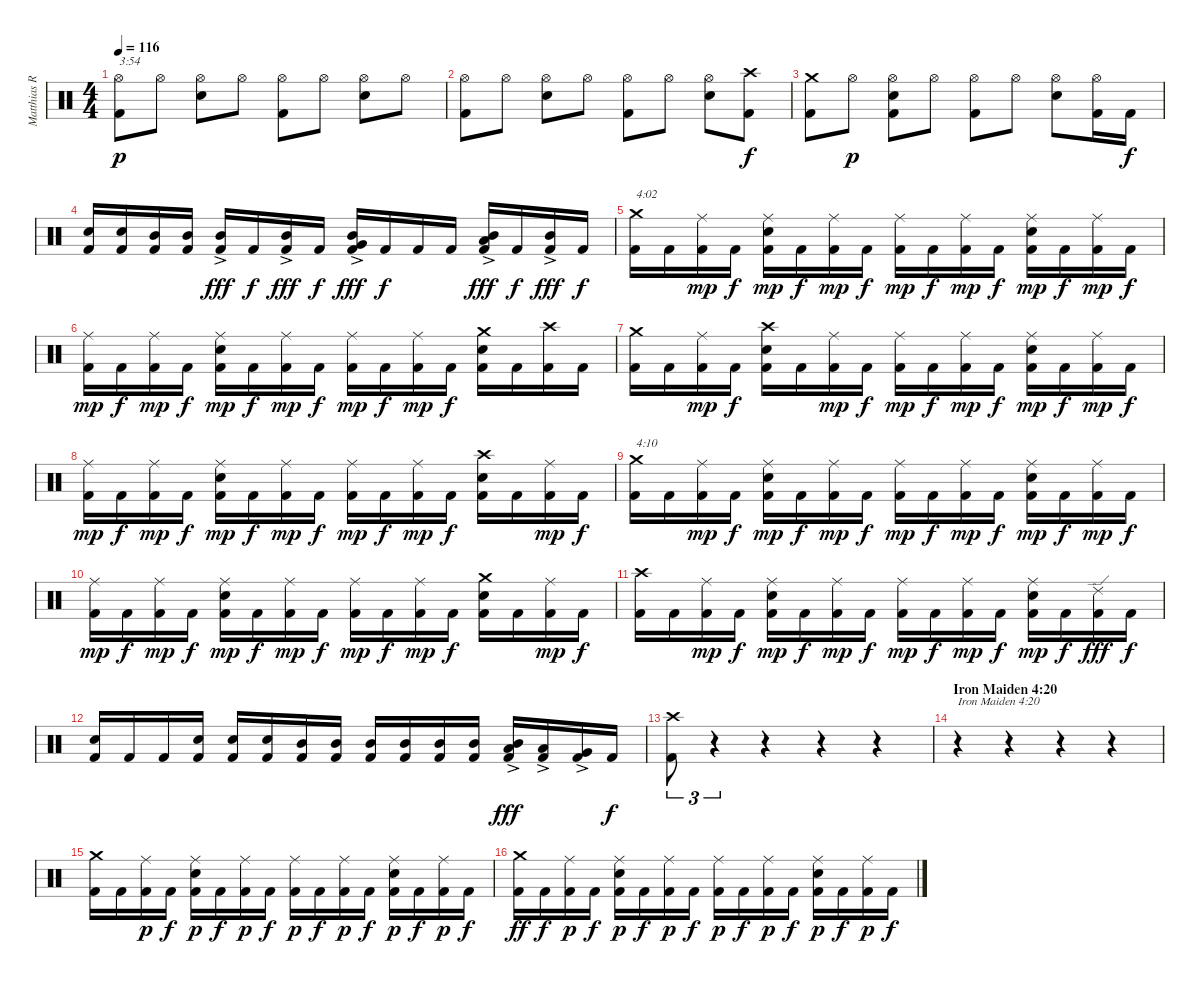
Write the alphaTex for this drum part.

\track ("Matthias R." "Matthias R") {instrument percussion}
\staff {score}
\articulation defaults
\ts (4 4)
\tempo 116
\clef neutral
\ks c
("Kick (hit) 2" "Hi-Hat (open)").8{txt "3:54" dy p} "Hi-Hat (open)".8 ("Electric Snare (hit)" "Hi-Hat (open)").8 "Hi-Hat (open)".8 ("Kick (hit) 2" "Hi-Hat (open)").8 "Hi-Hat (open)".8 ("Electric Snare (hit)" "Hi-Hat (open)").8 "Hi-Hat (open)".8 |
("Kick (hit) 2" "Hi-Hat (open)").8 "Hi-Hat (open)".8 ("Electric Snare (hit)" "Hi-Hat (open)").8 "Hi-Hat (open)".8 ("Kick (hit) 2" "Hi-Hat (open)").8 "Hi-Hat (open)".8 ("Electric Snare (hit)" "Hi-Hat (open)").8 ("Kick (hit) 2" "Crash high (hit)").8{dy f} |
("Kick (hit) 2" "Crash medium (hit)").8 "Hi-Hat (open)".8{dy p} ("Kick (hit) 2" "Electric Snare (hit)" "Hi-Hat (open)").8 "Hi-Hat (open)".8 ("Kick (hit) 2" "Hi-Hat (open)").8 "Hi-Hat (open)".8 ("Electric Snare (hit)" "Hi-Hat (open)").8 ("Kick (hit) 2" "Hi-Hat (open)").16 "Kick (hit) 2".16{dy f} |
("Kick (hit) 2" "Electric Snare (hit)").16 ("Kick (hit) 2" "Electric Snare (hit)").16 ("Kick (hit) 2" "Mid Tom (hit)").16 ("Kick (hit) 2" "Mid Tom (hit)").16 ("Kick (hit) 2" "Mid Tom (hit)"{ac}).16{dy fff} "Kick (hit) 2".16{dy f} ("Kick (hit) 2" "Mid Tom (hit)"{ac}).16{dy fff} "Kick (hit) 2".16{dy f} ("Kick (hit) 2" "Mid Tom (hit)"{ac} "Very Low Tom (hit)"{ac}).16{dy fff} "Kick (hit) 2".16{dy f} "Kick (hit) 2".16 "Kick (hit) 2".16 ("Kick (hit) 2" "Mid Tom (hit)"{ac} "Low Tom (hit)"{ac}).16{dy fff} "Kick (hit) 2".16{dy f} ("Kick (hit) 2" "Mid Tom (hit)"{ac}).16{dy fff} "Kick (hit) 2".16{dy f} |
("Kick (hit) 2" "Crash medium (hit)").16{txt "4:02"} "Kick (hit) 2".16 ("Kick (hit) 2" "Ride (middle)").16{dy mp} "Kick (hit) 2".16{dy f} ("Kick (hit) 2" "Electric Snare (hit)" "Ride (middle)").16{dy mp} "Kick (hit) 2".16{dy f} ("Kick (hit) 2" "Ride (middle)").16{dy mp} "Kick (hit) 2".16{dy f} ("Kick (hit) 2" "Ride (middle)").16{dy mp} "Kick (hit) 2".16{dy f} ("Kick (hit) 2" "Ride (middle)").16{dy mp} "Kick (hit) 2".16{dy f} ("Kick (hit) 2" "Electric Snare (hit)" "Ride (middle)").16{dy mp} "Kick (hit) 2".16{dy f} ("Kick (hit) 2" "Ride (middle)").16{dy mp} "Kick (hit) 2".16{dy f} |
("Kick (hit) 2" "Ride (middle)").16{dy mp} "Kick (hit) 2".16{dy f} ("Kick (hit) 2" "Ride (middle)").16{dy mp} "Kick (hit) 2".16{dy f} ("Kick (hit) 2" "Electric Snare (hit)" "Ride (middle)").16{dy mp} "Kick (hit) 2".16{dy f} ("Kick (hit) 2" "Ride (middle)").16{dy mp} "Kick (hit) 2".16{dy f} ("Kick (hit) 2" "Ride (middle)").16{dy mp} "Kick (hit) 2".16{dy f} ("Kick (hit) 2" "Ride (middle)").16{dy mp} "Kick (hit) 2".16{dy f} ("Kick (hit) 2" "Electric Snare (hit)" "Crash medium (hit)").16 "Kick (hit) 2".16 ("Kick (hit) 2" "Crash high (hit)").16 "Kick (hit) 2".16 |
("Kick (hit) 2" "Crash medium (hit)").16 "Kick (hit) 2".16 ("Kick (hit) 2" "Ride (middle)").16{dy mp} "Kick (hit) 2".16{dy f} ("Kick (hit) 2" "Electric Snare (hit)" "Crash high (hit)").16 "Kick (hit) 2".16 ("Kick (hit) 2" "Ride (middle)").16{dy mp} "Kick (hit) 2".16{dy f} ("Kick (hit) 2" "Ride (middle)").16{dy mp} "Kick (hit) 2".16{dy f} ("Kick (hit) 2" "Ride (middle)").16{dy mp} "Kick (hit) 2".16{dy f} ("Kick (hit) 2" "Electric Snare (hit)" "Ride (middle)").16{dy mp} "Kick (hit) 2".16{dy f} ("Kick (hit) 2" "Ride (middle)").16{dy mp} "Kick (hit) 2".16{dy f} |
("Kick (hit) 2" "Ride (middle)").16{dy mp} "Kick (hit) 2".16{dy f} ("Kick (hit) 2" "Ride (middle)").16{dy mp} "Kick (hit) 2".16{dy f} ("Kick (hit) 2" "Electric Snare (hit)" "Ride (middle)").16{dy mp} "Kick (hit) 2".16{dy f} ("Kick (hit) 2" "Ride (middle)").16{dy mp} "Kick (hit) 2".16{dy f} ("Kick (hit) 2" "Ride (middle)").16{dy mp} "Kick (hit) 2".16{dy f} ("Kick (hit) 2" "Ride (middle)").16{dy mp} "Kick (hit) 2".16{dy f} ("Kick (hit) 2" "Electric Snare (hit)" "Crash high (hit)").16 "Kick (hit) 2".16 ("Kick (hit) 2" "Ride (middle)").16{dy mp} "Kick (hit) 2".16{dy f} |
("Kick (hit) 2" "Crash medium (hit)").16{txt "4:10"} "Kick (hit) 2".16 ("Kick (hit) 2" "Ride (middle)").16{dy mp} "Kick (hit) 2".16{dy f} ("Kick (hit) 2" "Electric Snare (hit)" "Ride (middle)").16{dy mp} "Kick (hit) 2".16{dy f} ("Kick (hit) 2" "Ride (middle)").16{dy mp} "Kick (hit) 2".16{dy f} ("Kick (hit) 2" "Ride (middle)").16{dy mp} "Kick (hit) 2".16{dy f} ("Kick (hit) 2" "Ride (middle)").16{dy mp} "Kick (hit) 2".16{dy f} ("Kick (hit) 2" "Electric Snare (hit)" "Ride (middle)").16{dy mp} "Kick (hit) 2".16{dy f} ("Kick (hit) 2" "Ride (middle)").16{dy mp} "Kick (hit) 2".16{dy f} |
("Kick (hit) 2" "Ride (middle)").16{dy mp} "Kick (hit) 2".16{dy f} ("Kick (hit) 2" "Ride (middle)").16{dy mp} "Kick (hit) 2".16{dy f} ("Kick (hit) 2" "Electric Snare (hit)" "Ride (middle)").16{dy mp} "Kick (hit) 2".16{dy f} ("Kick (hit) 2" "Ride (middle)").16{dy mp} "Kick (hit) 2".16{dy f} ("Kick (hit) 2" "Ride (middle)").16{dy mp} "Kick (hit) 2".16{dy f} ("Kick (hit) 2" "Ride (middle)").16{dy mp} "Kick (hit) 2".16{dy f} ("Kick (hit) 2" "Electric Snare (hit)" "Crash medium (hit)").16 "Kick (hit) 2".16 ("Kick (hit) 2" "Ride (middle)").16{dy mp} "Kick (hit) 2".16{dy f} |
("Kick (hit) 2" "Crash high (hit)").16 "Kick (hit) 2".16 ("Kick (hit) 2" "Ride (middle)").16{dy mp} "Kick (hit) 2".16{dy f} ("Kick (hit) 2" "Electric Snare (hit)" "Ride (middle)").16{dy mp} "Kick (hit) 2".16{dy f} ("Kick (hit) 2" "Ride (middle)").16{dy mp} "Kick (hit) 2".16{dy f} ("Kick (hit) 2" "Ride (middle)").16{dy mp} "Kick (hit) 2".16{dy f} ("Kick (hit) 2" "Ride (middle)").16{dy mp} "Kick (hit) 2".16{dy f} ("Kick (hit) 2" "Electric Snare (hit)" "Ride (middle)").16{dy mp} "Kick (hit) 2".16{dy f} ("Kick (hit) 2" "Ride (edge) 2").16{dy fff} "Kick (hit) 2".16{dy f} |
("Kick (hit) 2" "Electric Snare (hit)").16 "Kick (hit) 2".16 "Kick (hit) 2".16 ("Kick (hit) 2" "Electric Snare (hit)").16 ("Kick (hit) 2" "Electric Snare (hit)").16 ("Kick (hit) 2" "Electric Snare (hit)").16 ("Kick (hit) 2" "Mid Tom (hit)").16 ("Kick (hit) 2" "Mid Tom (hit)").16 ("Kick (hit) 2" "Mid Tom (hit)").16 ("Kick (hit) 2" "Mid Tom (hit)").16 ("Kick (hit) 2" "Mid Tom (hit)").16 ("Kick (hit) 2" "Mid Tom (hit)").16 ("Kick (hit) 2" "Mid Tom (hit)"{ac} "Low Tom (hit)"{ac}).16{dy fff} ("Kick (hit) 2" "Low Tom (hit)"{ac}).16 ("Kick (hit) 2" "Very Low Tom (hit)"{ac}).16 "Kick (hit) 2".16{dy f} |
("Kick (hit) 2" "Crash high (hit)").8{tu (3 2)} r.4{tu (3 2) volume 0} r.4 r.4 r.4 |
\section ("" "Iron Maiden 4:20")
r.4{txt "Iron Maiden 4:20"} r.4 r.4 r.4 |
("Kick (hit) 2" "Crash medium (hit)").16{volume 15} "Kick (hit) 2".16 ("Kick (hit) 2" "Ride (middle)").16{dy p} "Kick (hit) 2".16{dy f} ("Kick (hit) 2" "Electric Snare (hit)" "Ride (middle)").16{dy p} "Kick (hit) 2".16{dy f} ("Kick (hit) 2" "Ride (middle)").16{dy p} "Kick (hit) 2".16{dy f} ("Kick (hit) 2" "Ride (middle)").16{dy p} "Kick (hit) 2".16{dy f} ("Kick (hit) 2" "Ride (middle)").16{dy p} "Kick (hit) 2".16{dy f} ("Kick (hit) 2" "Electric Snare (hit)" "Ride (middle)").16{dy p} "Kick (hit) 2".16{dy f} ("Kick (hit) 2" "Ride (middle)").16{dy p} "Kick (hit) 2".16{dy f} |
("Kick (hit) 2" "Crash medium (hit)").16{dy ff} "Kick (hit) 2".16{dy f} ("Kick (hit) 2" "Ride (middle)").16{dy p} "Kick (hit) 2".16{dy f} ("Kick (hit) 2" "Electric Snare (hit)" "Ride (middle)").16{dy p} "Kick (hit) 2".16{dy f} ("Kick (hit) 2" "Ride (middle)").16{dy p} "Kick (hit) 2".16{dy f} ("Kick (hit) 2" "Ride (middle)").16{dy p} "Kick (hit) 2".16{dy f} ("Kick (hit) 2" "Ride (middle)").16{dy p} "Kick (hit) 2".16{dy f} ("Kick (hit) 2" "Electric Snare (hit)" "Ride (middle)").16{dy p} "Kick (hit) 2".16{dy f} ("Kick (hit) 2" "Ride (middle)").16{dy p} "Kick (hit) 2".16{dy f}
